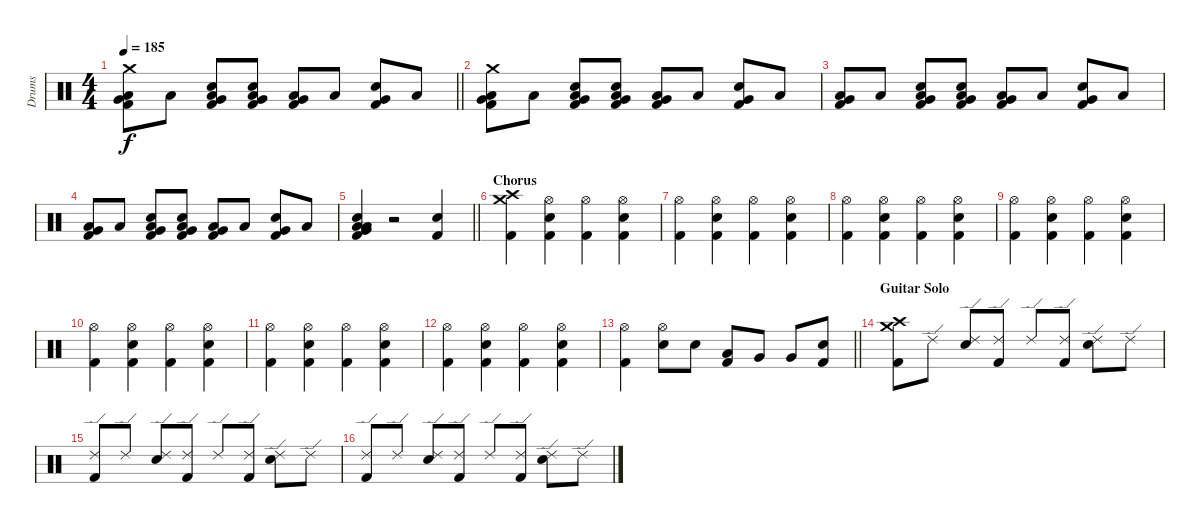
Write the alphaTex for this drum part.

\track ("Drums" "Drums") {instrument percussion bank 1}
\staff {score}
\articulation defaults
\ts (4 4)
\tempo 185
\clef neutral
\barLineRight lightlight
\ks c
("Crash medium (hit)" "Very Low Tom (hit)" "Kick (hit) 2" "Low Tom (hit)").8{dy f} "Low Tom (hit)".8 ("Snare (hit) 2" "Kick (hit) 2" "Very Low Tom (hit)" "Low Tom (hit)").8 ("Snare (hit) 2" "Very Low Tom (hit)" "Kick (hit) 2" "Low Tom (hit)").8 ("Low Tom (hit)" "Very Low Tom (hit)" "Kick (hit) 2").8 "Low Tom (hit)".8 ("Snare (hit) 2" "Kick (hit) 2" "Very Low Tom (hit)").8 "Low Tom (hit)".8 |
("Crash medium (hit)" "Very Low Tom (hit)" "Kick (hit) 2" "Low Tom (hit)").8 "Low Tom (hit)".8 ("Snare (hit) 2" "Kick (hit) 2" "Very Low Tom (hit)" "Low Tom (hit)").8 ("Snare (hit) 2" "Very Low Tom (hit)" "Kick (hit) 2" "Low Tom (hit)").8 ("Low Tom (hit)" "Very Low Tom (hit)" "Kick (hit) 2").8 "Low Tom (hit)".8 ("Snare (hit) 2" "Kick (hit) 2" "Very Low Tom (hit)").8 "Low Tom (hit)".8 |
("Very Low Tom (hit)" "Kick (hit) 2" "Low Tom (hit)").8 "Low Tom (hit)".8 ("Snare (hit) 2" "Kick (hit) 2" "Very Low Tom (hit)" "Low Tom (hit)").8 ("Snare (hit) 2" "Very Low Tom (hit)" "Kick (hit) 2" "Low Tom (hit)").8 ("Low Tom (hit)" "Very Low Tom (hit)" "Kick (hit) 2").8 "Low Tom (hit)".8 ("Snare (hit) 2" "Kick (hit) 2" "Very Low Tom (hit)").8 "Low Tom (hit)".8 |
("Very Low Tom (hit)" "Kick (hit) 2" "Low Tom (hit)").8 "Low Tom (hit)".8 ("Snare (hit) 2" "Kick (hit) 2" "Very Low Tom (hit)" "Low Tom (hit)").8 ("Snare (hit) 2" "Very Low Tom (hit)" "Kick (hit) 2" "Low Tom (hit)").8 ("Low Tom (hit)" "Very Low Tom (hit)" "Kick (hit) 2").8 "Low Tom (hit)".8 ("Snare (hit) 2" "Kick (hit) 2" "Very Low Tom (hit)").8 "Low Tom (hit)".8 |
\barLineRight lightlight
("Kick (hit) 2" "Snare (hit) 2" "Low Tom (hit)" "Very Low Tom (hit)" "Low Floor Tom (hit)").4 r.2 ("Snare (hit) 2" "Kick (hit) 2").4 |
\section ("" "Chorus")
("Kick (hit) 2" "Crash high (hit)" "Crash medium (hit)").4 ("Kick (hit) 2" "Snare (hit) 2" "Hi-Hat (open)").4 ("Kick (hit) 2" "Hi-Hat (open)").4 ("Kick (hit) 2" "Snare (hit) 2" "Hi-Hat (open)").4 |
("Kick (hit) 2" "Hi-Hat (open)").4 ("Kick (hit) 2" "Snare (hit) 2" "Hi-Hat (open)").4 ("Kick (hit) 2" "Hi-Hat (open)").4 ("Kick (hit) 2" "Snare (hit) 2" "Hi-Hat (open)").4 |
("Kick (hit) 2" "Hi-Hat (open)").4 ("Kick (hit) 2" "Snare (hit) 2" "Hi-Hat (open)").4 ("Kick (hit) 2" "Hi-Hat (open)").4 ("Kick (hit) 2" "Snare (hit) 2" "Hi-Hat (open)").4 |
("Kick (hit) 2" "Hi-Hat (open)").4 ("Kick (hit) 2" "Snare (hit) 2" "Hi-Hat (open)").4 ("Kick (hit) 2" "Hi-Hat (open)").4 ("Kick (hit) 2" "Snare (hit) 2" "Hi-Hat (open)").4 |
("Kick (hit) 2" "Hi-Hat (open)").4 ("Kick (hit) 2" "Snare (hit) 2" "Hi-Hat (open)").4 ("Kick (hit) 2" "Hi-Hat (open)").4 ("Kick (hit) 2" "Snare (hit) 2" "Hi-Hat (open)").4 |
("Kick (hit) 2" "Hi-Hat (open)").4 ("Kick (hit) 2" "Snare (hit) 2" "Hi-Hat (open)").4 ("Kick (hit) 2" "Hi-Hat (open)").4 ("Kick (hit) 2" "Snare (hit) 2" "Hi-Hat (open)").4 |
("Kick (hit) 2" "Hi-Hat (open)").4 ("Kick (hit) 2" "Snare (hit) 2" "Hi-Hat (open)").4 ("Kick (hit) 2" "Hi-Hat (open)").4 ("Kick (hit) 2" "Snare (hit) 2" "Hi-Hat (open)").4 |
\barLineRight lightlight
("Kick (hit) 2" "Hi-Hat (open)").4 ("Snare (hit) 2" "Hi-Hat (open)").8 "Snare (hit) 2".8 ("Low Tom (hit)" "Kick (hit) 2").8 "Very Low Tom (hit)".8 "Very Low Tom (hit)".8 ("Snare (hit) 2" "Kick (hit) 2").8 |
\section ("" "Guitar Solo")
("Crash medium (hit)" "Crash high (hit)" "Kick (hit) 2").8 "Ride (edge) 2".8 ("Snare (hit) 2" "Ride (edge) 2").8 ("Kick (hit) 2" "Ride (edge) 2").8 "Ride (edge) 2".8 ("Kick (hit) 2" "Ride (edge) 2").8 ("Snare (hit) 2" "Ride (edge) 2").8 "Ride (edge) 2".8 |
("Ride (edge) 2" "Kick (hit) 2").8 "Ride (edge) 2".8 ("Snare (hit) 2" "Ride (edge) 2").8 ("Kick (hit) 2" "Ride (edge) 2").8 "Ride (edge) 2".8 ("Kick (hit) 2" "Ride (edge) 2").8 ("Snare (hit) 2" "Ride (edge) 2").8 "Ride (edge) 2".8 |
("Ride (edge) 2" "Kick (hit) 2").8 "Ride (edge) 2".8 ("Snare (hit) 2" "Ride (edge) 2").8 ("Kick (hit) 2" "Ride (edge) 2").8 "Ride (edge) 2".8 ("Kick (hit) 2" "Ride (edge) 2").8 ("Snare (hit) 2" "Ride (edge) 2").8 "Ride (edge) 2".8
